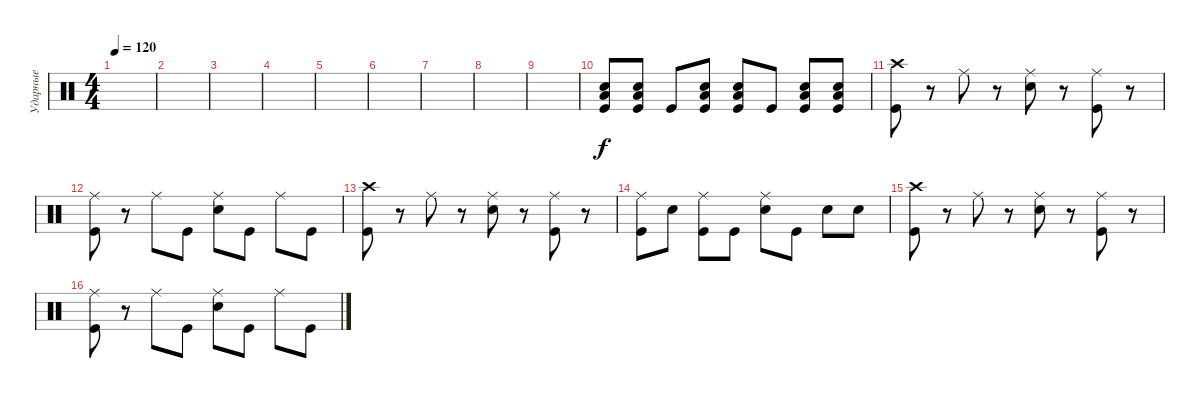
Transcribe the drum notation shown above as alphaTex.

\track ("Ударные" "Ударные") {instrument percussion}
\staff {score}
\articulation defaults
\ts (4 4)
\tempo 120
\clef neutral
\ks c
|
|
|
|
|
|
|
|
|
("Low Tom (hit)" "Snare (hit) 2" "Kick (hit)").8 ("Low Tom (hit)" "Snare (hit) 2" "Kick (hit)").8 "Kick (hit)".8 ("Low Tom (hit)" "Snare (hit) 2" "Kick (hit)").8 ("Low Tom (hit)" "Snare (hit) 2" "Kick (hit)").8 "Kick (hit)".8 ("Low Tom (hit)" "Snare (hit) 2" "Kick (hit)").8 ("Low Tom (hit)" "Snare (hit) 2" "Kick (hit)").8 |
("Crash high (hit)" "Kick (hit)").8 r.8 "Ride (middle)".8 r.8 ("Ride (middle)" "Snare (hit) 2").8 r.8 ("Ride (middle)" "Kick (hit)").8 r.8 |
("Ride (middle)" "Kick (hit)").8 r.8 "Ride (middle)".8 "Kick (hit)".8 ("Ride (middle)" "Snare (hit) 2").8 "Kick (hit)".8 "Ride (middle)".8 "Kick (hit)".8 |
("Crash high (hit)" "Kick (hit)").8 r.8 "Ride (middle)".8 r.8 ("Ride (middle)" "Snare (hit) 2").8 r.8 ("Ride (middle)" "Kick (hit)").8 r.8 |
("Ride (middle)" "Kick (hit)").8 "Snare (hit) 2".8 ("Ride (middle)" "Kick (hit)").8 "Kick (hit)".8 ("Ride (middle)" "Snare (hit) 2").8 "Kick (hit)".8 "Snare (hit) 2".8 "Snare (hit) 2".8 |
("Crash high (hit)" "Kick (hit)").8 r.8 "Ride (middle)".8 r.8 ("Ride (middle)" "Snare (hit) 2").8 r.8 ("Ride (middle)" "Kick (hit)").8 r.8 |
("Ride (middle)" "Kick (hit)").8 r.8 "Ride (middle)".8 "Kick (hit)".8 ("Ride (middle)" "Snare (hit) 2").8 "Kick (hit)".8 "Ride (middle)".8 "Kick (hit)".8
